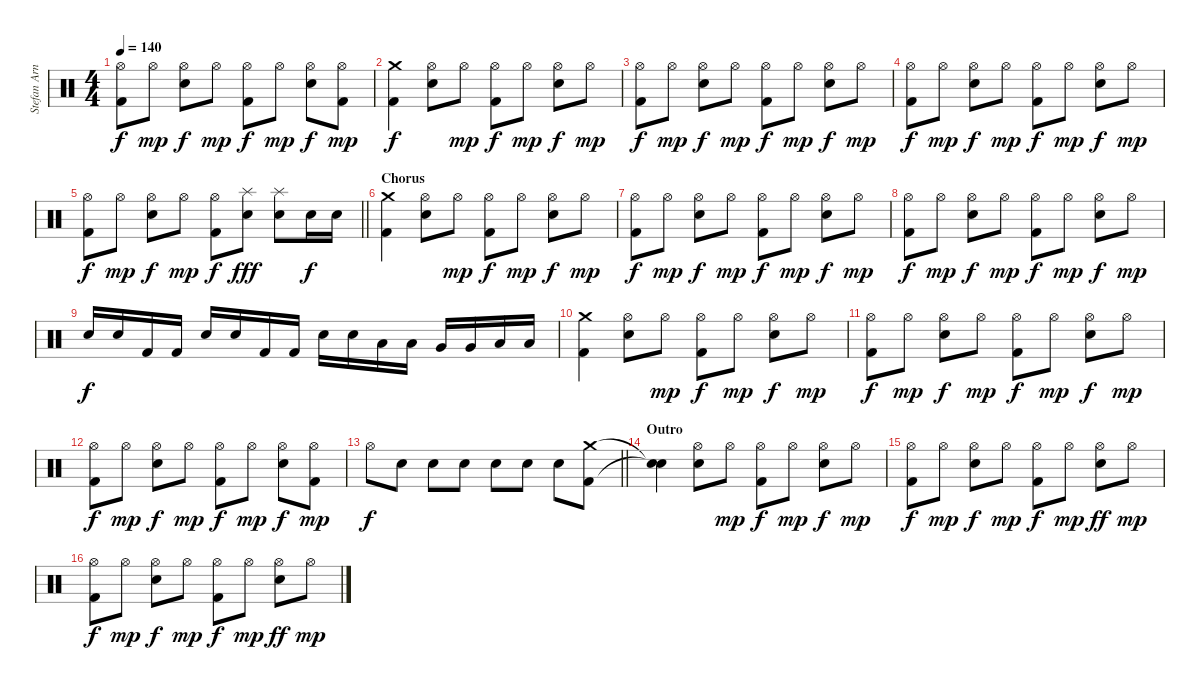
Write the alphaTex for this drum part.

\track ("Stefan Arnold" "Stefan Arn") {instrument percussion}
\staff {score}
\articulation defaults
\ts (4 4)
\tempo 140
\clef neutral
\ks c
("Hi-Hat (open)" "Kick (hit) 2").8{dy f} "Hi-Hat (open)".8{dy mp} ("Hi-Hat (open)" "Electric Snare (hit)").8{dy f} "Hi-Hat (open)".8{dy mp} ("Hi-Hat (open)" "Kick (hit) 2").8{dy f} "Hi-Hat (open)".8{dy mp} ("Hi-Hat (open)" "Electric Snare (hit)").8{dy f} ("Hi-Hat (open)" "Kick (hit) 2").8{dy mp} |
("Crash medium (hit)" "Kick (hit) 2").4{dy f} ("Hi-Hat (open)" "Electric Snare (hit)").8 "Hi-Hat (open)".8{dy mp} ("Hi-Hat (open)" "Kick (hit) 2").8{dy f} "Hi-Hat (open)".8{dy mp} ("Hi-Hat (open)" "Electric Snare (hit)").8{dy f} "Hi-Hat (open)".8{dy mp} |
("Hi-Hat (open)" "Kick (hit) 2").8{dy f} "Hi-Hat (open)".8{dy mp} ("Hi-Hat (open)" "Electric Snare (hit)").8{dy f} "Hi-Hat (open)".8{dy mp} ("Hi-Hat (open)" "Kick (hit) 2").8{dy f} "Hi-Hat (open)".8{dy mp} ("Hi-Hat (open)" "Electric Snare (hit)").8{dy f} "Hi-Hat (open)".8{dy mp} |
("Hi-Hat (open)" "Kick (hit) 2").8{dy f} "Hi-Hat (open)".8{dy mp} ("Hi-Hat (open)" "Electric Snare (hit)").8{dy f} "Hi-Hat (open)".8{dy mp} ("Hi-Hat (open)" "Kick (hit) 2").8{dy f} "Hi-Hat (open)".8{dy mp} ("Hi-Hat (open)" "Electric Snare (hit)").8{dy f} "Hi-Hat (open)".8{dy mp} |
\barLineRight lightlight
("Hi-Hat (open)" "Kick (hit) 2").8{dy f} "Hi-Hat (open)".8{dy mp} ("Hi-Hat (open)" "Electric Snare (hit)").8{dy f} "Hi-Hat (open)".8{dy mp} ("Hi-Hat (open)" "Kick (hit) 2").8{dy f} ("Splash (hit)" "Electric Snare (hit)").8{dy fff} ("Splash (hit)" "Electric Snare (hit)").8 "Electric Snare (hit)".16{dy f} "Electric Snare (hit)".16 |
\section ("" "Chorus")
("Crash medium (hit)" "Kick (hit) 2").4 ("Hi-Hat (open)" "Electric Snare (hit)").8 "Hi-Hat (open)".8{dy mp} ("Hi-Hat (open)" "Kick (hit) 2").8{dy f} "Hi-Hat (open)".8{dy mp} ("Hi-Hat (open)" "Electric Snare (hit)").8{dy f} "Hi-Hat (open)".8{dy mp} |
("Hi-Hat (open)" "Kick (hit) 2").8{dy f} "Hi-Hat (open)".8{dy mp} ("Hi-Hat (open)" "Electric Snare (hit)").8{dy f} "Hi-Hat (open)".8{dy mp} ("Hi-Hat (open)" "Kick (hit) 2").8{dy f} "Hi-Hat (open)".8{dy mp} ("Hi-Hat (open)" "Electric Snare (hit)").8{dy f} "Hi-Hat (open)".8{dy mp} |
("Hi-Hat (open)" "Kick (hit) 2").8{dy f} "Hi-Hat (open)".8{dy mp} ("Hi-Hat (open)" "Electric Snare (hit)").8{dy f} "Hi-Hat (open)".8{dy mp} ("Hi-Hat (open)" "Kick (hit) 2").8{dy f} "Hi-Hat (open)".8{dy mp} ("Hi-Hat (open)" "Electric Snare (hit)").8{dy f} "Hi-Hat (open)".8{dy mp} |
"Electric Snare (hit)".16{dy f} "Electric Snare (hit)".16 "Kick (hit) 2".16 "Kick (hit) 2".16 "Electric Snare (hit)".16 "Electric Snare (hit)".16 "Kick (hit) 2".16 "Kick (hit) 2".16 "Electric Snare (hit)".16 "Electric Snare (hit)".16 "Low Tom (hit)".16 "Low Tom (hit)".16 "Very Low Tom (hit)".16 "Very Low Tom (hit)".16 "Low Floor Tom (hit)".16 "Low Floor Tom (hit)".16 |
("Crash medium (hit)" "Kick (hit) 2").4 ("Hi-Hat (open)" "Electric Snare (hit)").8 "Hi-Hat (open)".8{dy mp} ("Hi-Hat (open)" "Kick (hit) 2").8{dy f} "Hi-Hat (open)".8{dy mp} ("Hi-Hat (open)" "Electric Snare (hit)").8{dy f} "Hi-Hat (open)".8{dy mp} |
("Hi-Hat (open)" "Kick (hit) 2").8{dy f} "Hi-Hat (open)".8{dy mp} ("Hi-Hat (open)" "Electric Snare (hit)").8{dy f} "Hi-Hat (open)".8{dy mp} ("Hi-Hat (open)" "Kick (hit) 2").8{dy f} "Hi-Hat (open)".8{dy mp} ("Hi-Hat (open)" "Electric Snare (hit)").8{dy f} "Hi-Hat (open)".8{dy mp} |
("Hi-Hat (open)" "Kick (hit) 2").8{dy f} "Hi-Hat (open)".8{dy mp} ("Hi-Hat (open)" "Electric Snare (hit)").8{dy f} "Hi-Hat (open)".8{dy mp} ("Hi-Hat (open)" "Kick (hit) 2").8{dy f} "Hi-Hat (open)".8{dy mp} ("Hi-Hat (open)" "Electric Snare (hit)").8{dy f} ("Hi-Hat (open)" "Kick (hit) 2").8{dy mp} |
\barLineRight lightlight "Hi-Hat (open)".8{dy f} "Electric Snare (hit)".8 "Electric Snare (hit)".8 "Electric Snare (hit)".8 "Electric Snare (hit)".8 "Electric Snare (hit)".8 "Electric Snare (hit)".8
("Crash medium (hit)" "Kick (hit) 2").8 |
\section ("" "Outro")
("Snare (hit)"{t} "Snare (hit)"{t}).4 ("Hi-Hat (open)" "Electric Snare (hit)").8 "Hi-Hat (open)".8{dy mp} ("Hi-Hat (open)" "Kick (hit) 2").8{dy f} "Hi-Hat (open)".8{dy mp} ("Hi-Hat (open)" "Electric Snare (hit)").8{dy f} "Hi-Hat (open)".8{dy mp} |
("Hi-Hat (open)" "Kick (hit) 2").8{dy f} "Hi-Hat (open)".8{dy mp} ("Hi-Hat (open)" "Electric Snare (hit)").8{dy f} "Hi-Hat (open)".8{dy mp} ("Hi-Hat (open)" "Kick (hit) 2").8{dy f} "Hi-Hat (open)".8{dy mp} ("Hi-Hat (open)" "Electric Snare (hit)").8{dy ff} "Hi-Hat (open)".8{dy mp} |
("Hi-Hat (open)" "Kick (hit) 2").8{dy f} "Hi-Hat (open)".8{dy mp} ("Hi-Hat (open)" "Electric Snare (hit)").8{dy f} "Hi-Hat (open)".8{dy mp} ("Hi-Hat (open)" "Kick (hit) 2").8{dy f} "Hi-Hat (open)".8{dy mp} ("Hi-Hat (open)" "Electric Snare (hit)").8{dy ff} "Hi-Hat (open)".8{dy mp}
